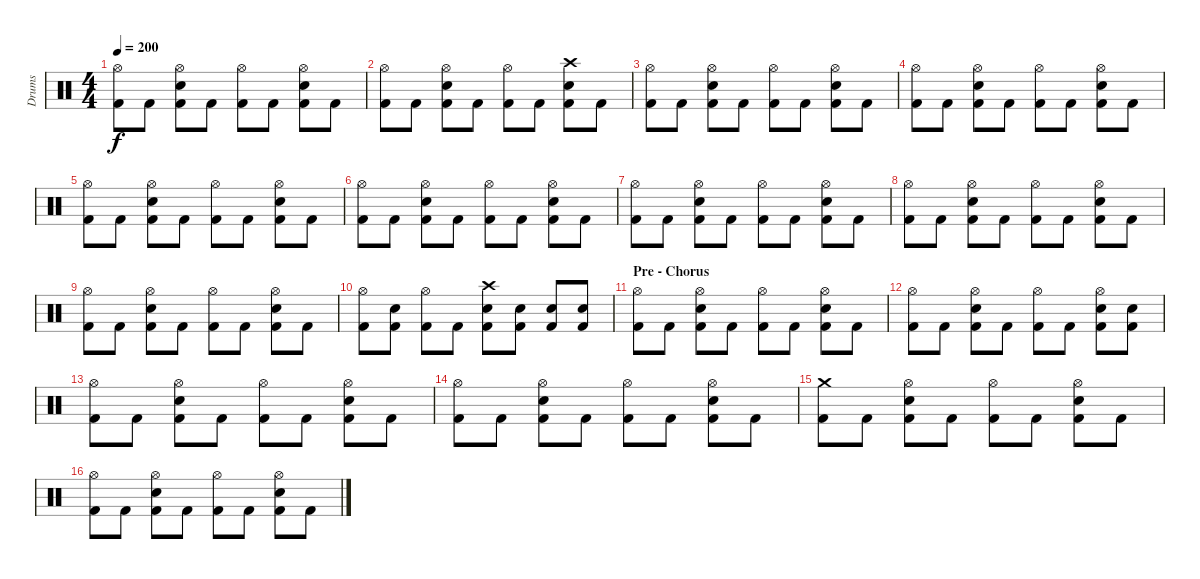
\track ("Drums" "Drums") {instrument percussion}
\staff {score}
\articulation defaults
\ts (4 4)
\tempo 200
\clef neutral
\ks c
("Hi-Hat (open)" "Kick (hit) 2").8{dy f} "Kick (hit) 2".8 ("Hi-Hat (open)" "Snare (hit) 2" "Kick (hit) 2").8 "Kick (hit) 2".8 ("Hi-Hat (open)" "Kick (hit) 2").8 "Kick (hit) 2".8 ("Hi-Hat (open)" "Snare (hit) 2" "Kick (hit) 2").8 "Kick (hit) 2".8 |
("Hi-Hat (open)" "Kick (hit) 2").8 "Kick (hit) 2".8 ("Hi-Hat (open)" "Snare (hit) 2" "Kick (hit) 2").8 "Kick (hit) 2".8 ("Hi-Hat (open)" "Kick (hit) 2").8 "Kick (hit) 2".8 ("Crash high (hit)" "Snare (hit) 2" "Kick (hit) 2").8 "Kick (hit) 2".8 |
("Hi-Hat (open)" "Kick (hit) 2").8 "Kick (hit) 2".8 ("Hi-Hat (open)" "Snare (hit) 2" "Kick (hit) 2").8 "Kick (hit) 2".8 ("Hi-Hat (open)" "Kick (hit) 2").8 "Kick (hit) 2".8 ("Hi-Hat (open)" "Snare (hit) 2" "Kick (hit) 2").8 "Kick (hit) 2".8 |
("Hi-Hat (open)" "Kick (hit) 2").8 "Kick (hit) 2".8 ("Hi-Hat (open)" "Snare (hit) 2" "Kick (hit) 2").8 "Kick (hit) 2".8 ("Hi-Hat (open)" "Kick (hit) 2").8 "Kick (hit) 2".8 ("Hi-Hat (open)" "Snare (hit) 2" "Kick (hit) 2").8 "Kick (hit) 2".8 |
("Hi-Hat (open)" "Kick (hit) 2").8 "Kick (hit) 2".8 ("Hi-Hat (open)" "Snare (hit) 2" "Kick (hit) 2").8 "Kick (hit) 2".8 ("Hi-Hat (open)" "Kick (hit) 2").8 "Kick (hit) 2".8 ("Hi-Hat (open)" "Snare (hit) 2" "Kick (hit) 2").8 "Kick (hit) 2".8 |
("Hi-Hat (open)" "Kick (hit) 2").8 "Kick (hit) 2".8 ("Hi-Hat (open)" "Snare (hit) 2" "Kick (hit) 2").8 "Kick (hit) 2".8 ("Hi-Hat (open)" "Kick (hit) 2").8 "Kick (hit) 2".8 ("Hi-Hat (open)" "Snare (hit) 2" "Kick (hit) 2").8 "Kick (hit) 2".8 |
("Hi-Hat (open)" "Kick (hit) 2").8 "Kick (hit) 2".8 ("Hi-Hat (open)" "Snare (hit) 2" "Kick (hit) 2").8 "Kick (hit) 2".8 ("Hi-Hat (open)" "Kick (hit) 2").8 "Kick (hit) 2".8 ("Hi-Hat (open)" "Snare (hit) 2" "Kick (hit) 2").8 "Kick (hit) 2".8 |
("Hi-Hat (open)" "Kick (hit) 2").8 "Kick (hit) 2".8 ("Hi-Hat (open)" "Snare (hit) 2" "Kick (hit) 2").8 "Kick (hit) 2".8 ("Hi-Hat (open)" "Kick (hit) 2").8 "Kick (hit) 2".8 ("Hi-Hat (open)" "Snare (hit) 2" "Kick (hit) 2").8 "Kick (hit) 2".8 |
("Hi-Hat (open)" "Kick (hit) 2").8 "Kick (hit) 2".8 ("Hi-Hat (open)" "Snare (hit) 2" "Kick (hit) 2").8 "Kick (hit) 2".8 ("Hi-Hat (open)" "Kick (hit) 2").8 "Kick (hit) 2".8 ("Hi-Hat (open)" "Snare (hit) 2" "Kick (hit) 2").8 "Kick (hit) 2".8 |
("Hi-Hat (open)" "Kick (hit) 2").8 ("Snare (hit) 2" "Kick (hit) 2").8 ("Hi-Hat (open)" "Kick (hit) 2").8 "Kick (hit) 2".8 ("Crash high (hit)" "Snare (hit) 2" "Kick (hit) 2").8 ("Snare (hit) 2" "Kick (hit) 2").8 ("Snare (hit) 2" "Kick (hit) 2").8 ("Snare (hit) 2" "Kick (hit) 2").8 |
\section ("" "Pre - Chorus")
("Hi-Hat (open)" "Kick (hit) 2").8 "Kick (hit) 2".8 ("Hi-Hat (open)" "Snare (hit) 2" "Kick (hit) 2").8 "Kick (hit) 2".8 ("Hi-Hat (open)" "Kick (hit) 2").8 "Kick (hit) 2".8 ("Hi-Hat (open)" "Snare (hit) 2" "Kick (hit) 2").8 "Kick (hit) 2".8 |
("Hi-Hat (open)" "Kick (hit) 2").8 "Kick (hit) 2".8 ("Hi-Hat (open)" "Snare (hit) 2" "Kick (hit) 2").8 "Kick (hit) 2".8 ("Hi-Hat (open)" "Kick (hit) 2").8 "Kick (hit) 2".8 ("Hi-Hat (open)" "Snare (hit) 2" "Kick (hit) 2").8 ("Snare (hit) 2" "Kick (hit) 2").8 |
("Hi-Hat (open)" "Kick (hit) 2").8 "Kick (hit) 2".8 ("Hi-Hat (open)" "Snare (hit) 2" "Kick (hit) 2").8 "Kick (hit) 2".8 ("Hi-Hat (open)" "Kick (hit) 2").8 "Kick (hit) 2".8 ("Hi-Hat (open)" "Snare (hit) 2" "Kick (hit) 2").8 "Kick (hit) 2".8 |
("Hi-Hat (open)" "Kick (hit) 2").8 "Kick (hit) 2".8 ("Hi-Hat (open)" "Snare (hit) 2" "Kick (hit) 2").8 "Kick (hit) 2".8 ("Hi-Hat (open)" "Kick (hit) 2").8 "Kick (hit) 2".8 ("Hi-Hat (open)" "Snare (hit) 2" "Kick (hit) 2").8 "Kick (hit) 2".8 |
("Crash medium (hit)" "Kick (hit) 2").8 "Kick (hit) 2".8 ("Hi-Hat (open)" "Snare (hit) 2" "Kick (hit) 2").8 "Kick (hit) 2".8 ("Hi-Hat (open)" "Kick (hit) 2").8 "Kick (hit) 2".8 ("Hi-Hat (open)" "Snare (hit) 2" "Kick (hit) 2").8 "Kick (hit) 2".8 |
("Hi-Hat (open)" "Kick (hit) 2").8 "Kick (hit) 2".8 ("Hi-Hat (open)" "Snare (hit) 2" "Kick (hit) 2").8 "Kick (hit) 2".8 ("Hi-Hat (open)" "Kick (hit) 2").8 "Kick (hit) 2".8 ("Hi-Hat (open)" "Snare (hit) 2" "Kick (hit) 2").8 "Kick (hit) 2".8
